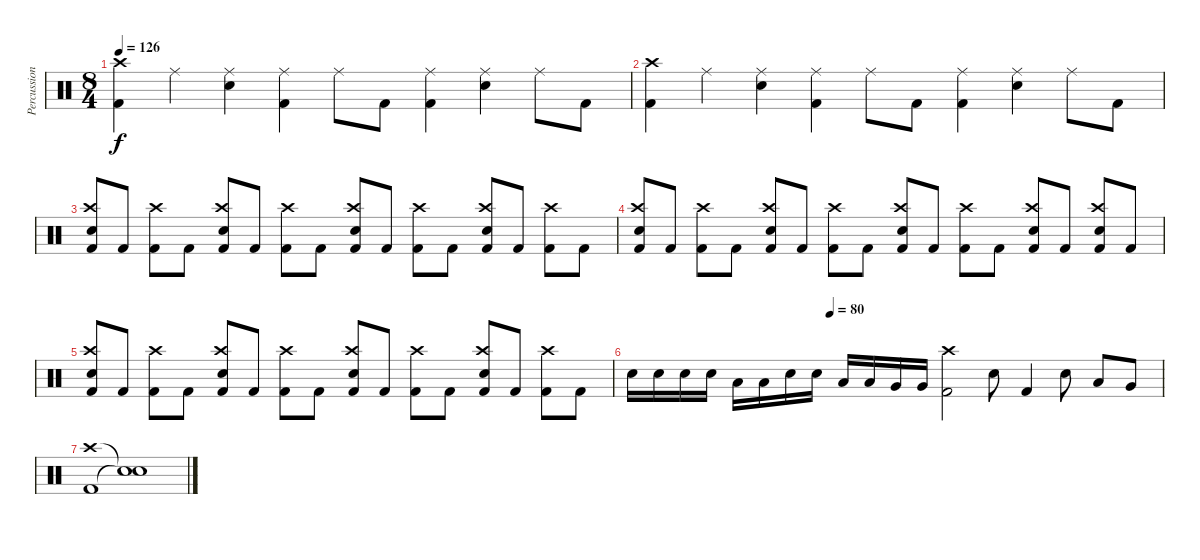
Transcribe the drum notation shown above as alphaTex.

\track ("Percussion" "Percussion") {instrument percussion}
\staff {score}
\articulation defaults
\ts (8 4)
\tempo 126
\clef neutral
\ks c
("Kick (hit) 2" "Crash high (hit)").4{dy f} "Ride (middle)".4 ("Electric Snare (hit)" "Ride (middle)").4 ("Kick (hit) 2" "Ride (middle)").4 "Ride (middle)".8 "Kick (hit) 2".8 ("Kick (hit) 2" "Ride (middle)").4 ("Electric Snare (hit)" "Ride (middle)").4 "Ride (middle)".8 "Kick (hit) 2".8 |
("Kick (hit) 2" "Crash high (hit)").4 "Ride (middle)".4 ("Electric Snare (hit)" "Ride (middle)").4 ("Kick (hit) 2" "Ride (middle)").4 "Ride (middle)".8 "Kick (hit) 2".8 ("Kick (hit) 2" "Ride (middle)").4 ("Electric Snare (hit)" "Ride (middle)").4 "Ride (middle)".8 "Kick (hit) 2".8 |
("Kick (hit) 2" "Electric Snare (hit)" "Crash high (hit)").8 "Kick (hit) 2".8 ("Kick (hit) 2" "Crash high (hit)").8 "Kick (hit) 2".8 ("Kick (hit) 2" "Electric Snare (hit)" "Crash high (hit)").8 "Kick (hit) 2".8 ("Kick (hit) 2" "Crash high (hit)").8 "Kick (hit) 2".8 ("Kick (hit) 2" "Electric Snare (hit)" "Crash high (hit)").8 "Kick (hit) 2".8 ("Kick (hit) 2" "Crash high (hit)").8 "Kick (hit) 2".8 ("Kick (hit) 2" "Electric Snare (hit)" "Crash high (hit)").8 "Kick (hit) 2".8 ("Kick (hit) 2" "Crash high (hit)").8 "Kick (hit) 2".8 |
("Kick (hit) 2" "Electric Snare (hit)" "Crash high (hit)").8 "Kick (hit) 2".8 ("Kick (hit) 2" "Crash high (hit)").8 "Kick (hit) 2".8 ("Kick (hit) 2" "Electric Snare (hit)" "Crash high (hit)").8 "Kick (hit) 2".8 ("Kick (hit) 2" "Crash high (hit)").8 "Kick (hit) 2".8 ("Kick (hit) 2" "Electric Snare (hit)" "Crash high (hit)").8 "Kick (hit) 2".8 ("Kick (hit) 2" "Crash high (hit)").8 "Kick (hit) 2".8 ("Kick (hit) 2" "Electric Snare (hit)" "Crash high (hit)").8 "Kick (hit) 2".8 ("Kick (hit) 2" "Electric Snare (hit)" "Crash high (hit)").8 "Kick (hit) 2".8 |
("Kick (hit) 2" "Electric Snare (hit)" "Crash high (hit)").8 "Kick (hit) 2".8 ("Kick (hit) 2" "Crash high (hit)").8 "Kick (hit) 2".8 ("Kick (hit) 2" "Electric Snare (hit)" "Crash high (hit)").8 "Kick (hit) 2".8 ("Kick (hit) 2" "Crash high (hit)").8 "Kick (hit) 2".8 ("Kick (hit) 2" "Electric Snare (hit)" "Crash high (hit)").8 "Kick (hit) 2".8 ("Kick (hit) 2" "Crash high (hit)").8 "Kick (hit) 2".8 ("Kick (hit) 2" "Electric Snare (hit)" "Crash high (hit)").8 "Kick (hit) 2".8 ("Kick (hit) 2" "Crash high (hit)").8 "Kick (hit) 2".8 |
\tempo (80 0.375)
"Electric Snare (hit)".16 "Electric Snare (hit)".16 "Electric Snare (hit)".16 "Electric Snare (hit)".16 "Low Tom (hit)".16 "Low Tom (hit)".16 "Electric Snare (hit)".16 "Electric Snare (hit)".16 "Low Tom (hit)".16 "Low Tom (hit)".16 "Very Low Tom (hit)".16 "Very Low Tom (hit)".16 ("Kick (hit) 2" "Crash high (hit)").2 "Electric Snare (hit)".8 "Kick (hit) 2".4 "Electric Snare (hit)".8 "Low Tom (hit)".8 "Very Low Tom (hit)".8 |
("Kick (hit) 2" "Crash high (hit)").1 ("Snare (hit)"{t} "Snare (hit)"{t}).1
